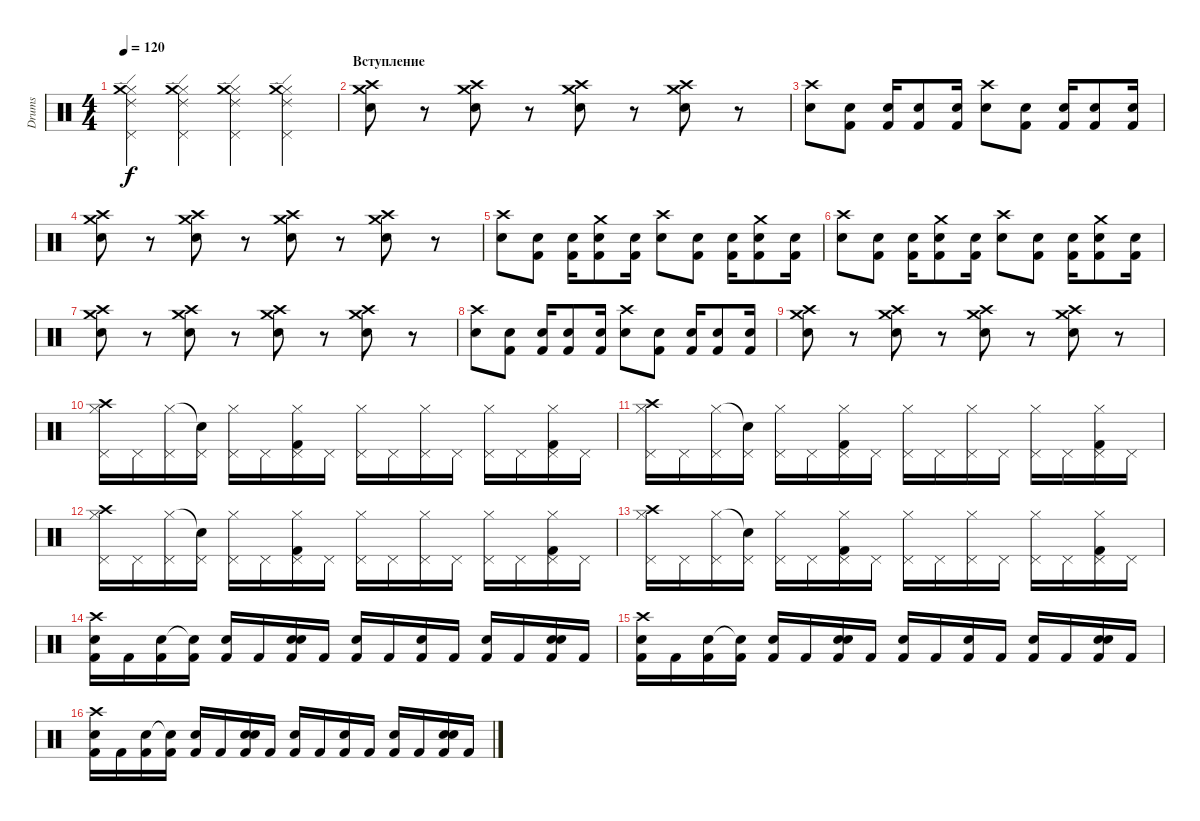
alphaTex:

\track ("Drums" "Drums") {instrument percussion}
\staff {score}
\articulation defaults
\ts (4 4)
\tempo 120
\clef neutral
\ks c
("Ride (edge) 2" "Hi-Hat (closed)" "Pedal Hi-Hat (hit)" "Crash medium (hit)").4{dy f} ("Ride (edge) 2" "Hi-Hat (closed)" "Pedal Hi-Hat (hit)" "Crash medium (hit)").4 ("Ride (edge) 2" "Hi-Hat (closed)" "Pedal Hi-Hat (hit)" "Crash medium (hit)").4 ("Ride (edge) 2" "Hi-Hat (closed)" "Pedal Hi-Hat (hit)" "Crash medium (hit)").4 |
\section ("" "Вступление")
("Electric Snare (hit)" "Crash medium (hit)" "Crash high (hit)").8 r.8 ("Electric Snare (hit)" "Crash medium (hit)" "Crash high (hit)").8 r.8 ("Electric Snare (hit)" "Crash medium (hit)" "Crash high (hit)").8 r.8 ("Electric Snare (hit)" "Crash medium (hit)" "Crash high (hit)").8 r.8 |
("Snare (hit) 2" "Crash high (hit)").8 ("Snare (hit) 2" "Kick (hit) 2").8 ("Electric Snare (hit)" "Kick (hit) 2").16 ("Snare (hit) 2" "Kick (hit) 2").8 ("Electric Snare (hit)" "Kick (hit) 2").16 ("Snare (hit) 2" "Crash high (hit)").8 ("Snare (hit) 2" "Kick (hit) 2").8 ("Electric Snare (hit)" "Kick (hit) 2").16 ("Snare (hit) 2" "Kick (hit) 2").8 ("Electric Snare (hit)" "Kick (hit) 2").16 |
("Electric Snare (hit)" "Crash medium (hit)" "Crash high (hit)").8 r.8 ("Electric Snare (hit)" "Crash medium (hit)" "Crash high (hit)").8 r.8 ("Electric Snare (hit)" "Crash medium (hit)" "Crash high (hit)").8 r.8 ("Electric Snare (hit)" "Crash medium (hit)" "Crash high (hit)").8 r.8 |
("Snare (hit) 2" "Crash high (hit)").8 ("Snare (hit) 2" "Kick (hit) 2").8 ("Electric Snare (hit)" "Kick (hit) 2").16 ("Snare (hit) 2" "Kick (hit) 2" "Crash medium (hit)").8 ("Electric Snare (hit)" "Kick (hit) 2").16 ("Snare (hit) 2" "Crash high (hit)").8 ("Snare (hit) 2" "Kick (hit) 2").8 ("Electric Snare (hit)" "Kick (hit) 2").16 ("Snare (hit) 2" "Kick (hit) 2" "Crash medium (hit)").8 ("Electric Snare (hit)" "Kick (hit) 2").16 |
("Snare (hit) 2" "Crash high (hit)").8 ("Snare (hit) 2" "Kick (hit) 2").8 ("Electric Snare (hit)" "Kick (hit) 2").16 ("Snare (hit) 2" "Kick (hit) 2" "Crash medium (hit)").8 ("Electric Snare (hit)" "Kick (hit) 2").16 ("Snare (hit) 2" "Crash high (hit)").8 ("Snare (hit) 2" "Kick (hit) 2").8 ("Electric Snare (hit)" "Kick (hit) 2").16 ("Snare (hit) 2" "Kick (hit) 2" "Crash medium (hit)").8 ("Electric Snare (hit)" "Kick (hit) 2").16 |
("Electric Snare (hit)" "Crash medium (hit)" "Crash high (hit)").8 r.8 ("Electric Snare (hit)" "Crash medium (hit)" "Crash high (hit)").8 r.8 ("Electric Snare (hit)" "Crash medium (hit)" "Crash high (hit)").8 r.8 ("Electric Snare (hit)" "Crash medium (hit)" "Crash high (hit)").8 r.8 |
("Snare (hit) 2" "Crash high (hit)").8 ("Snare (hit) 2" "Kick (hit) 2").8 ("Electric Snare (hit)" "Kick (hit) 2").16 ("Snare (hit) 2" "Kick (hit) 2").8 ("Electric Snare (hit)" "Kick (hit) 2").16 ("Snare (hit) 2" "Crash high (hit)").8 ("Snare (hit) 2" "Kick (hit) 2").8 ("Electric Snare (hit)" "Kick (hit) 2").16 ("Snare (hit) 2" "Kick (hit) 2").8 ("Electric Snare (hit)" "Kick (hit) 2").16 |
("Electric Snare (hit)" "Crash medium (hit)" "Crash high (hit)").8 r.8 ("Electric Snare (hit)" "Crash medium (hit)" "Crash high (hit)").8 r.8 ("Electric Snare (hit)" "Crash medium (hit)" "Crash high (hit)").8 r.8 ("Electric Snare (hit)" "Crash medium (hit)" "Crash high (hit)").8 r.8 |
("Crash high (hit)" "Hi-Hat (closed)" "Pedal Hi-Hat (hit)").16 "Pedal Hi-Hat (hit)".16 ("Hi-Hat (closed)" "Pedal Hi-Hat (hit)").16 ("Snare (hit)"{t} "Pedal Hi-Hat (hit)").16 ("Hi-Hat (closed)" "Pedal Hi-Hat (hit)").16 "Pedal Hi-Hat (hit)".16 ("Kick (hit) 2" "Hi-Hat (closed)" "Pedal Hi-Hat (hit)").16 "Pedal Hi-Hat (hit)".16 ("Hi-Hat (closed)" "Pedal Hi-Hat (hit)").16 "Pedal Hi-Hat (hit)".16 ("Hi-Hat (closed)" "Pedal Hi-Hat (hit)").16 "Pedal Hi-Hat (hit)".16 ("Hi-Hat (closed)" "Pedal Hi-Hat (hit)").16 "Pedal Hi-Hat (hit)".16 ("Kick (hit) 2" "Hi-Hat (closed)" "Pedal Hi-Hat (hit)").16 "Pedal Hi-Hat (hit)".16 |
("Crash high (hit)" "Hi-Hat (closed)" "Pedal Hi-Hat (hit)").16 "Pedal Hi-Hat (hit)".16 ("Hi-Hat (closed)" "Pedal Hi-Hat (hit)").16 ("Snare (hit)"{t} "Pedal Hi-Hat (hit)").16 ("Hi-Hat (closed)" "Pedal Hi-Hat (hit)").16 "Pedal Hi-Hat (hit)".16 ("Kick (hit) 2" "Hi-Hat (closed)" "Pedal Hi-Hat (hit)").16 "Pedal Hi-Hat (hit)".16 ("Hi-Hat (closed)" "Pedal Hi-Hat (hit)").16 "Pedal Hi-Hat (hit)".16 ("Hi-Hat (closed)" "Pedal Hi-Hat (hit)").16 "Pedal Hi-Hat (hit)".16 ("Hi-Hat (closed)" "Pedal Hi-Hat (hit)").16 "Pedal Hi-Hat (hit)".16 ("Kick (hit) 2" "Hi-Hat (closed)" "Pedal Hi-Hat (hit)").16 "Pedal Hi-Hat (hit)".16 |
("Crash high (hit)" "Hi-Hat (closed)" "Pedal Hi-Hat (hit)").16 "Pedal Hi-Hat (hit)".16 ("Hi-Hat (closed)" "Pedal Hi-Hat (hit)").16 ("Snare (hit)"{t} "Pedal Hi-Hat (hit)").16 ("Hi-Hat (closed)" "Pedal Hi-Hat (hit)").16 "Pedal Hi-Hat (hit)".16 ("Kick (hit) 2" "Hi-Hat (closed)" "Pedal Hi-Hat (hit)").16 "Pedal Hi-Hat (hit)".16 ("Hi-Hat (closed)" "Pedal Hi-Hat (hit)").16 "Pedal Hi-Hat (hit)".16 ("Hi-Hat (closed)" "Pedal Hi-Hat (hit)").16 "Pedal Hi-Hat (hit)".16 ("Hi-Hat (closed)" "Pedal Hi-Hat (hit)").16 "Pedal Hi-Hat (hit)".16 ("Kick (hit) 2" "Hi-Hat (closed)" "Pedal Hi-Hat (hit)").16 "Pedal Hi-Hat (hit)".16 |
("Crash high (hit)" "Hi-Hat (closed)" "Pedal Hi-Hat (hit)").16 "Pedal Hi-Hat (hit)".16 ("Hi-Hat (closed)" "Pedal Hi-Hat (hit)").16 ("Snare (hit)"{t} "Pedal Hi-Hat (hit)").16 ("Hi-Hat (closed)" "Pedal Hi-Hat (hit)").16 "Pedal Hi-Hat (hit)".16 ("Kick (hit) 2" "Hi-Hat (closed)" "Pedal Hi-Hat (hit)").16 "Pedal Hi-Hat (hit)".16 ("Hi-Hat (closed)" "Pedal Hi-Hat (hit)").16 "Pedal Hi-Hat (hit)".16 ("Hi-Hat (closed)" "Pedal Hi-Hat (hit)").16 "Pedal Hi-Hat (hit)".16 ("Hi-Hat (closed)" "Pedal Hi-Hat (hit)").16 "Pedal Hi-Hat (hit)".16 ("Kick (hit) 2" "Hi-Hat (closed)" "Pedal Hi-Hat (hit)").16 "Pedal Hi-Hat (hit)".16 |
("Crash high (hit)" "Snare (hit) 2" "Kick (hit) 2").16 "Kick (hit) 2".16 ("Snare (hit) 2" "Kick (hit) 2").16 ("Snare (hit)"{t} "Kick (hit) 2").16 ("Snare (hit) 2" "Kick (hit) 2").16 "Kick (hit) 2".16 ("Electric Snare (hit)" "Snare (hit) 2" "Kick (hit) 2").16 "Kick (hit) 2".16 ("Snare (hit) 2" "Kick (hit) 2").16 "Kick (hit) 2".16 ("Snare (hit) 2" "Kick (hit) 2").16 "Kick (hit) 2".16 ("Snare (hit) 2" "Kick (hit) 2").16 "Kick (hit) 2".16 ("Electric Snare (hit)" "Snare (hit) 2" "Kick (hit) 2").16 "Kick (hit) 2".16 |
("Crash high (hit)" "Snare (hit) 2" "Kick (hit) 2").16 "Kick (hit) 2".16 ("Snare (hit) 2" "Kick (hit) 2").16 ("Snare (hit)"{t} "Kick (hit) 2").16 ("Snare (hit) 2" "Kick (hit) 2").16 "Kick (hit) 2".16 ("Electric Snare (hit)" "Snare (hit) 2" "Kick (hit) 2").16 "Kick (hit) 2".16 ("Snare (hit) 2" "Kick (hit) 2").16 "Kick (hit) 2".16 ("Snare (hit) 2" "Kick (hit) 2").16 "Kick (hit) 2".16 ("Snare (hit) 2" "Kick (hit) 2").16 "Kick (hit) 2".16 ("Electric Snare (hit)" "Snare (hit) 2" "Kick (hit) 2").16 "Kick (hit) 2".16 |
("Crash high (hit)" "Snare (hit) 2" "Kick (hit) 2").16 "Kick (hit) 2".16 ("Snare (hit) 2" "Kick (hit) 2").16 ("Snare (hit)"{t} "Kick (hit) 2").16 ("Snare (hit) 2" "Kick (hit) 2").16 "Kick (hit) 2".16 ("Electric Snare (hit)" "Snare (hit) 2" "Kick (hit) 2").16 "Kick (hit) 2".16 ("Snare (hit) 2" "Kick (hit) 2").16 "Kick (hit) 2".16 ("Snare (hit) 2" "Kick (hit) 2").16 "Kick (hit) 2".16 ("Snare (hit) 2" "Kick (hit) 2").16 "Kick (hit) 2".16 ("Electric Snare (hit)" "Snare (hit) 2" "Kick (hit) 2").16 "Kick (hit) 2".16
